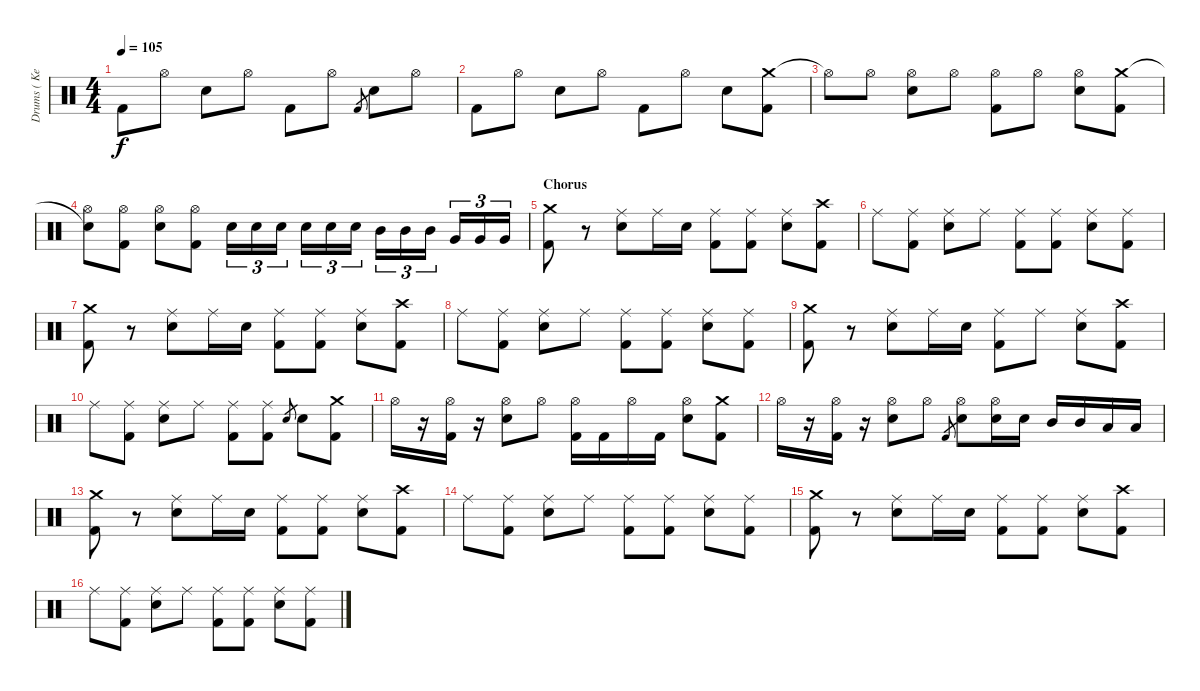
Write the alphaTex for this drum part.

\track ("Drums ( Kevin Miller )" "Drums ( Ke") {instrument percussion}
\staff {score}
\articulation defaults
\ts (4 4)
\tempo 105
\clef neutral
\ks c "Kick (hit) 2".8{dy f} "Hi-Hat (open)".8 "Snare (hit) 2".8 "Hi-Hat (open)".8 "Kick (hit) 2".8 "Hi-Hat (open)".8 "Kick (hit) 2".8{gr} "Snare (hit) 2".8 "Hi-Hat (open)".8
|
"Kick (hit) 2".8 "Hi-Hat (open)".8 "Snare (hit) 2".8 "Hi-Hat (open)".8 "Kick (hit) 2".8 "Hi-Hat (open)".8 "Snare (hit) 2".8 ("Crash medium (hit)" "Kick (hit) 2").8 |
"Hi-Hat (open)"{t}.8 "Hi-Hat (open)".8 ("Hi-Hat (open)" "Snare (hit) 2").8 "Hi-Hat (open)".8 ("Hi-Hat (open)" "Kick (hit) 2").8 "Hi-Hat (open)".8 ("Hi-Hat (open)" "Snare (hit) 2").8 ("Crash medium (hit)" "Kick (hit) 2").8 |
("Snare (hit)"{t} "Hi-Hat (open)").8 ("Hi-Hat (open)" "Kick (hit) 2").8 ("Hi-Hat (open)" "Snare (hit) 2").8 ("Hi-Hat (open)" "Kick (hit) 2").8 "Snare (hit) 2".16{tu (3 2)} "Snare (hit) 2".16{tu (3 2)} "Snare (hit) 2".16{tu (3 2)} "Snare (hit) 2".16{tu (3 2)} "Snare (hit) 2".16{tu (3 2)} "Snare (hit) 2".16{tu (3 2)} "Mid Tom (hit)".16{tu (3 2)} "Mid Tom (hit)".16{tu (3 2)} "Mid Tom (hit)".16{tu (3 2)} "Very Low Tom (hit)".16{tu (3 2)} "Very Low Tom (hit)".16{tu (3 2)} "Very Low Tom (hit)".16{tu (3 2)} |
\section ("" "Chorus")
("Crash medium (hit)" "Kick (hit) 2").8 r.8 ("Ride (middle)" "Snare (hit) 2").8 "Ride (middle)".16 "Snare (hit) 2".16 ("Ride (middle)" "Kick (hit) 2").8 ("Ride (middle)" "Kick (hit) 2").8 ("Ride (middle)" "Snare (hit) 2").8 ("Crash high (hit)" "Kick (hit) 2").8 |
"Ride (middle)".8 ("Ride (middle)" "Kick (hit) 2").8 ("Ride (middle)" "Snare (hit) 2").8 "Ride (middle)".8 ("Ride (middle)" "Kick (hit) 2").8 ("Ride (middle)" "Kick (hit) 2").8 ("Ride (middle)" "Snare (hit) 2").8 ("Ride (middle)" "Kick (hit) 2").8 |
("Crash medium (hit)" "Kick (hit) 2").8 r.8 ("Ride (middle)" "Snare (hit) 2").8 "Ride (middle)".16 "Snare (hit) 2".16 ("Ride (middle)" "Kick (hit) 2").8 ("Ride (middle)" "Kick (hit) 2").8 ("Ride (middle)" "Snare (hit) 2").8 ("Crash high (hit)" "Kick (hit) 2").8 |
"Ride (middle)".8 ("Ride (middle)" "Kick (hit) 2").8 ("Ride (middle)" "Snare (hit) 2").8 "Ride (middle)".8 ("Ride (middle)" "Kick (hit) 2").8 ("Ride (middle)" "Kick (hit) 2").8 ("Ride (middle)" "Snare (hit) 2").8 ("Ride (middle)" "Kick (hit) 2").8 |
("Crash medium (hit)" "Kick (hit) 2").8 r.8 ("Ride (middle)" "Snare (hit) 2").8 "Ride (middle)".16 "Snare (hit) 2".16 ("Ride (middle)" "Kick (hit) 2").8 "Ride (middle)".8 ("Ride (middle)" "Snare (hit) 2").8 ("Crash high (hit)" "Kick (hit) 2").8 |
"Ride (middle)".8 ("Ride (middle)" "Kick (hit) 2").8 ("Ride (middle)" "Snare (hit) 2").8 "Ride (middle)".8 ("Ride (middle)" "Kick (hit) 2").8 ("Ride (middle)" "Kick (hit) 2").8 "Snare (hit) 2".8{gr} "Snare (hit) 2".8 ("Crash medium (hit)" "Kick (hit) 2").8 |
"Hi-Hat (open)".16 r.16 ("Hi-Hat (open)" "Kick (hit) 2").16 r.16 ("Hi-Hat (open)" "Snare (hit) 2").8 "Hi-Hat (open)".8 ("Hi-Hat (open)" "Kick (hit) 2").16 "Kick (hit) 2".16 "Hi-Hat (open)".16 "Kick (hit) 2".16 ("Hi-Hat (open)" "Snare (hit) 2").8 ("Crash medium (hit)" "Kick (hit) 2").8 |
"Hi-Hat (open)".16 r.16 ("Hi-Hat (open)" "Kick (hit) 2").16 r.16 ("Hi-Hat (open)" "Snare (hit) 2").8 "Hi-Hat (open)".8 "Kick (hit) 2".8{gr} ("Hi-Hat (open)" "Snare (hit) 2").8 ("Hi-Hat (open)" "Snare (hit) 2").16 "Snare (hit) 2".16 "Mid Tom (hit)".16 "Mid Tom (hit)".16 "Low Tom (hit)".16 "Low Tom (hit)".16 |
("Crash medium (hit)" "Kick (hit) 2").8 r.8 ("Ride (middle)" "Snare (hit) 2").8 "Ride (middle)".16 "Snare (hit) 2".16 ("Ride (middle)" "Kick (hit) 2").8 ("Ride (middle)" "Kick (hit) 2").8 ("Ride (middle)" "Snare (hit) 2").8 ("Crash high (hit)" "Kick (hit) 2").8 |
"Ride (middle)".8 ("Ride (middle)" "Kick (hit) 2").8 ("Ride (middle)" "Snare (hit) 2").8 "Ride (middle)".8 ("Ride (middle)" "Kick (hit) 2").8 ("Ride (middle)" "Kick (hit) 2").8 ("Ride (middle)" "Snare (hit) 2").8 ("Ride (middle)" "Kick (hit) 2").8 |
("Crash medium (hit)" "Kick (hit) 2").8 r.8 ("Ride (middle)" "Snare (hit) 2").8 "Ride (middle)".16 "Snare (hit) 2".16 ("Ride (middle)" "Kick (hit) 2").8 ("Ride (middle)" "Kick (hit) 2").8 ("Ride (middle)" "Snare (hit) 2").8 ("Crash high (hit)" "Kick (hit) 2").8 |
"Ride (middle)".8 ("Ride (middle)" "Kick (hit) 2").8 ("Ride (middle)" "Snare (hit) 2").8 "Ride (middle)".8 ("Ride (middle)" "Kick (hit) 2").8 ("Ride (middle)" "Kick (hit) 2").8 ("Ride (middle)" "Snare (hit) 2").8 ("Ride (middle)" "Kick (hit) 2").8
